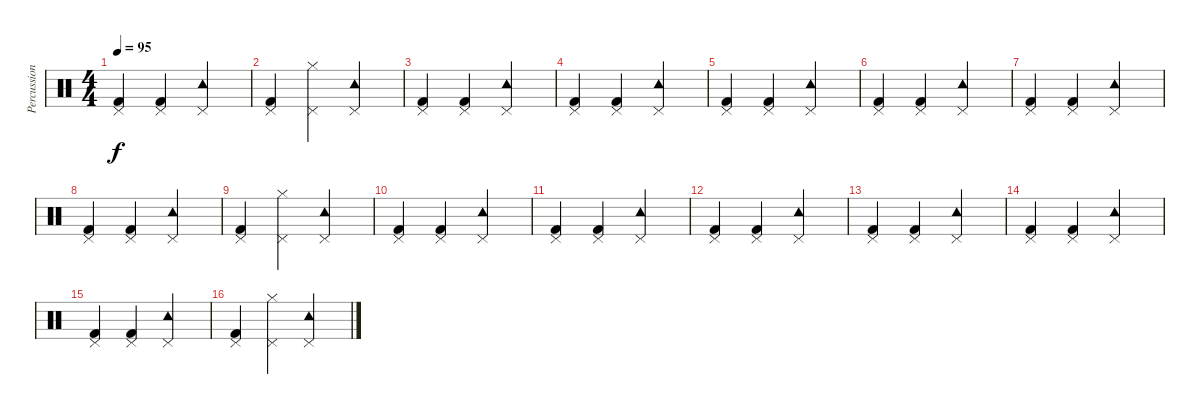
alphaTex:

\track ("Percussions" "Percussion") {instrument percussion}
\staff {score}
\articulation defaults
\ts (4 4)
\tempo 95
\clef neutral
\ks c
("Kick (hit) 2" "Pedal Hi-Hat (hit)").4{dy f} ("Kick (hit) 2" "Pedal Hi-Hat (hit)").4 ("Tambourine (hit)" "Pedal Hi-Hat (hit)").2 |
("Kick (hit) 2" "Pedal Hi-Hat (hit)").4 ("Hi-Hat (closed)" "Pedal Hi-Hat (hit)").4 ("Tambourine (hit)" "Pedal Hi-Hat (hit)").2 |
("Kick (hit) 2" "Pedal Hi-Hat (hit)").4 ("Kick (hit) 2" "Pedal Hi-Hat (hit)").4 ("Tambourine (hit)" "Pedal Hi-Hat (hit)").2 |
("Kick (hit) 2" "Pedal Hi-Hat (hit)").4 ("Kick (hit) 2" "Pedal Hi-Hat (hit)").4 ("Tambourine (hit)" "Pedal Hi-Hat (hit)").2 |
("Kick (hit) 2" "Pedal Hi-Hat (hit)").4 ("Kick (hit) 2" "Pedal Hi-Hat (hit)").4 ("Tambourine (hit)" "Pedal Hi-Hat (hit)").2 |
("Kick (hit) 2" "Pedal Hi-Hat (hit)").4 ("Kick (hit) 2" "Pedal Hi-Hat (hit)").4 ("Tambourine (hit)" "Pedal Hi-Hat (hit)").2 |
("Kick (hit) 2" "Pedal Hi-Hat (hit)").4 ("Kick (hit) 2" "Pedal Hi-Hat (hit)").4 ("Tambourine (hit)" "Pedal Hi-Hat (hit)").2 |
("Kick (hit) 2" "Pedal Hi-Hat (hit)").4 ("Kick (hit) 2" "Pedal Hi-Hat (hit)").4 ("Tambourine (hit)" "Pedal Hi-Hat (hit)").2 |
("Kick (hit) 2" "Pedal Hi-Hat (hit)").4 ("Hi-Hat (closed)" "Pedal Hi-Hat (hit)").4 ("Tambourine (hit)" "Pedal Hi-Hat (hit)").2 |
("Kick (hit) 2" "Pedal Hi-Hat (hit)").4 ("Kick (hit) 2" "Pedal Hi-Hat (hit)").4 ("Tambourine (hit)" "Pedal Hi-Hat (hit)").2 |
("Kick (hit) 2" "Pedal Hi-Hat (hit)").4 ("Kick (hit) 2" "Pedal Hi-Hat (hit)").4 ("Tambourine (hit)" "Pedal Hi-Hat (hit)").2 |
("Kick (hit) 2" "Pedal Hi-Hat (hit)").4 ("Kick (hit) 2" "Pedal Hi-Hat (hit)").4 ("Tambourine (hit)" "Pedal Hi-Hat (hit)").2 |
("Kick (hit) 2" "Pedal Hi-Hat (hit)").4 ("Kick (hit) 2" "Pedal Hi-Hat (hit)").4 ("Tambourine (hit)" "Pedal Hi-Hat (hit)").2 |
("Kick (hit) 2" "Pedal Hi-Hat (hit)").4 ("Kick (hit) 2" "Pedal Hi-Hat (hit)").4 ("Tambourine (hit)" "Pedal Hi-Hat (hit)").2 |
("Kick (hit) 2" "Pedal Hi-Hat (hit)").4 ("Kick (hit) 2" "Pedal Hi-Hat (hit)").4 ("Tambourine (hit)" "Pedal Hi-Hat (hit)").2 |
("Kick (hit) 2" "Pedal Hi-Hat (hit)").4 ("Hi-Hat (closed)" "Pedal Hi-Hat (hit)").4 ("Tambourine (hit)" "Pedal Hi-Hat (hit)").2
